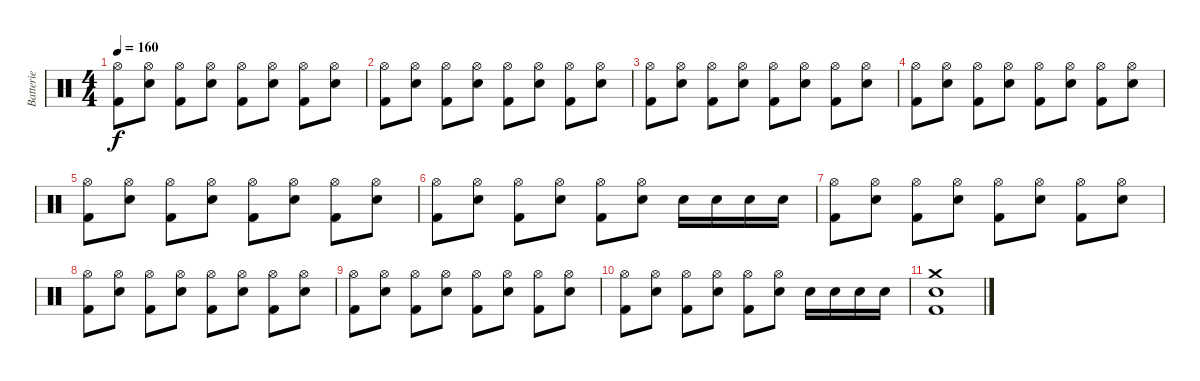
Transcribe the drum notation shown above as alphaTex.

\track ("Batterie" "Batterie") {instrument percussion}
\staff {score}
\articulation defaults
\ts (4 4)
\tempo 160
\clef neutral
\ks c
("Kick (hit) 2" "Hi-Hat (open)").8{dy f} ("Electric Snare (hit)" "Hi-Hat (open)").8 ("Kick (hit) 2" "Hi-Hat (open)").8 ("Electric Snare (hit)" "Hi-Hat (open)").8 ("Kick (hit) 2" "Hi-Hat (open)").8 ("Electric Snare (hit)" "Hi-Hat (open)").8 ("Kick (hit) 2" "Hi-Hat (open)").8 ("Electric Snare (hit)" "Hi-Hat (open)").8 |
("Kick (hit) 2" "Hi-Hat (open)").8 ("Electric Snare (hit)" "Hi-Hat (open)").8 ("Kick (hit) 2" "Hi-Hat (open)").8 ("Electric Snare (hit)" "Hi-Hat (open)").8 ("Kick (hit) 2" "Hi-Hat (open)").8 ("Electric Snare (hit)" "Hi-Hat (open)").8 ("Kick (hit) 2" "Hi-Hat (open)").8 ("Electric Snare (hit)" "Hi-Hat (open)").8 |
("Kick (hit) 2" "Hi-Hat (open)").8 ("Electric Snare (hit)" "Hi-Hat (open)").8 ("Kick (hit) 2" "Hi-Hat (open)").8 ("Electric Snare (hit)" "Hi-Hat (open)").8 ("Kick (hit) 2" "Hi-Hat (open)").8 ("Electric Snare (hit)" "Hi-Hat (open)").8 ("Kick (hit) 2" "Hi-Hat (open)").8 ("Electric Snare (hit)" "Hi-Hat (open)").8 |
("Kick (hit) 2" "Hi-Hat (open)").8 ("Electric Snare (hit)" "Hi-Hat (open)").8 ("Kick (hit) 2" "Hi-Hat (open)").8 ("Electric Snare (hit)" "Hi-Hat (open)").8 ("Kick (hit) 2" "Hi-Hat (open)").8 ("Electric Snare (hit)" "Hi-Hat (open)").8 ("Kick (hit) 2" "Hi-Hat (open)").8 ("Electric Snare (hit)" "Hi-Hat (open)").8 |
("Kick (hit) 2" "Hi-Hat (open)").8 ("Electric Snare (hit)" "Hi-Hat (open)").8 ("Kick (hit) 2" "Hi-Hat (open)").8 ("Electric Snare (hit)" "Hi-Hat (open)").8 ("Kick (hit) 2" "Hi-Hat (open)").8 ("Electric Snare (hit)" "Hi-Hat (open)").8 ("Kick (hit) 2" "Hi-Hat (open)").8 ("Electric Snare (hit)" "Hi-Hat (open)").8 |
("Kick (hit) 2" "Hi-Hat (open)").8 ("Electric Snare (hit)" "Hi-Hat (open)").8 ("Kick (hit) 2" "Hi-Hat (open)").8 ("Electric Snare (hit)" "Hi-Hat (open)").8 ("Kick (hit) 2" "Hi-Hat (open)").8 ("Electric Snare (hit)" "Hi-Hat (open)").8 "Electric Snare (hit)".16 "Electric Snare (hit)".16 "Electric Snare (hit)".16 "Electric Snare (hit)".16 |
("Kick (hit) 2" "Hi-Hat (open)").8 ("Electric Snare (hit)" "Hi-Hat (open)").8 ("Kick (hit) 2" "Hi-Hat (open)").8 ("Electric Snare (hit)" "Hi-Hat (open)").8 ("Kick (hit) 2" "Hi-Hat (open)").8 ("Electric Snare (hit)" "Hi-Hat (open)").8 ("Kick (hit) 2" "Hi-Hat (open)").8 ("Electric Snare (hit)" "Hi-Hat (open)").8 |
("Kick (hit) 2" "Hi-Hat (open)").8 ("Electric Snare (hit)" "Hi-Hat (open)").8 ("Kick (hit) 2" "Hi-Hat (open)").8 ("Electric Snare (hit)" "Hi-Hat (open)").8 ("Kick (hit) 2" "Hi-Hat (open)").8 ("Electric Snare (hit)" "Hi-Hat (open)").8 ("Kick (hit) 2" "Hi-Hat (open)").8 ("Electric Snare (hit)" "Hi-Hat (open)").8 |
("Kick (hit) 2" "Hi-Hat (open)").8 ("Electric Snare (hit)" "Hi-Hat (open)").8 ("Kick (hit) 2" "Hi-Hat (open)").8 ("Electric Snare (hit)" "Hi-Hat (open)").8 ("Kick (hit) 2" "Hi-Hat (open)").8 ("Electric Snare (hit)" "Hi-Hat (open)").8 ("Kick (hit) 2" "Hi-Hat (open)").8 ("Electric Snare (hit)" "Hi-Hat (open)").8 |
("Kick (hit) 2" "Hi-Hat (open)").8 ("Electric Snare (hit)" "Hi-Hat (open)").8 ("Kick (hit) 2" "Hi-Hat (open)").8 ("Electric Snare (hit)" "Hi-Hat (open)").8 ("Kick (hit) 2" "Hi-Hat (open)").8 ("Electric Snare (hit)" "Hi-Hat (open)").8 "Electric Snare (hit)".16 "Electric Snare (hit)".16 "Electric Snare (hit)".16 "Electric Snare (hit)".16 |
("Kick (hit) 2" "Electric Snare (hit)" "Crash medium (hit)").1
